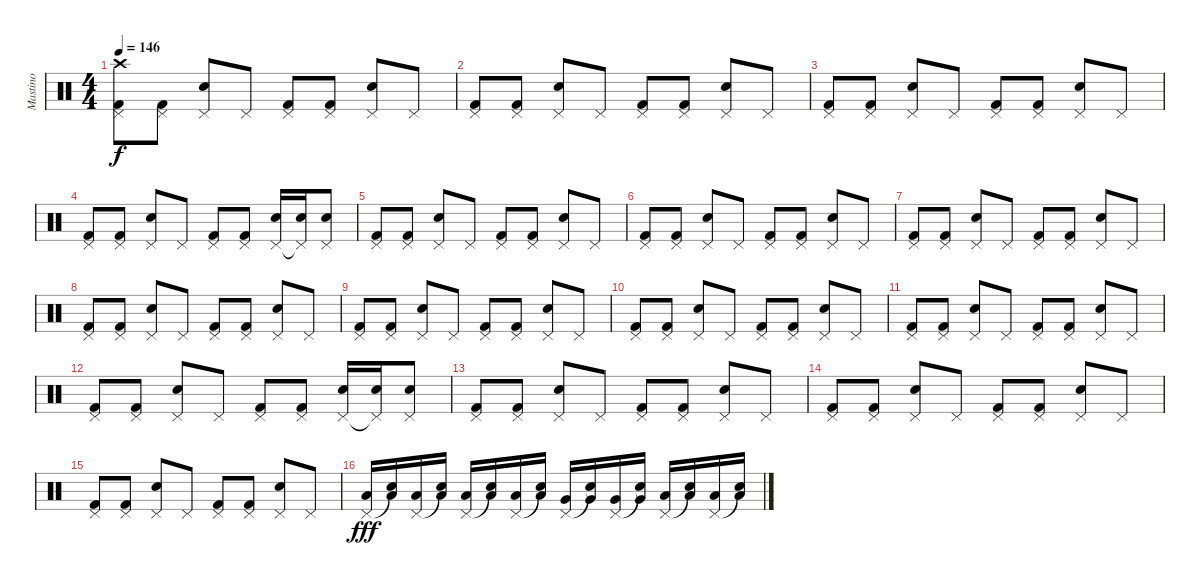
\track ("Mastino" "Mastino") {instrument percussion}
\staff {score}
\articulation defaults
\ts (4 4)
\tempo 146
\clef neutral
\ks c
("Crash high (hit)" "Pedal Hi-Hat (hit)" "Kick (hit) 2").8{dy f} ("Pedal Hi-Hat (hit)" "Kick (hit) 2").8 ("Pedal Hi-Hat (hit)" "Electric Snare (hit)").8 "Pedal Hi-Hat (hit)".8 ("Pedal Hi-Hat (hit)" "Kick (hit) 2").8 ("Pedal Hi-Hat (hit)" "Kick (hit) 2").8 ("Pedal Hi-Hat (hit)" "Electric Snare (hit)").8 "Pedal Hi-Hat (hit)".8 |
("Pedal Hi-Hat (hit)" "Kick (hit) 2").8 ("Pedal Hi-Hat (hit)" "Kick (hit) 2").8 ("Pedal Hi-Hat (hit)" "Electric Snare (hit)").8 "Pedal Hi-Hat (hit)".8 ("Pedal Hi-Hat (hit)" "Kick (hit) 2").8 ("Pedal Hi-Hat (hit)" "Kick (hit) 2").8 ("Pedal Hi-Hat (hit)" "Electric Snare (hit)").8 "Pedal Hi-Hat (hit)".8 |
("Pedal Hi-Hat (hit)" "Kick (hit) 2").8 ("Pedal Hi-Hat (hit)" "Kick (hit) 2").8 ("Pedal Hi-Hat (hit)" "Electric Snare (hit)").8 "Pedal Hi-Hat (hit)".8 ("Pedal Hi-Hat (hit)" "Kick (hit) 2").8 ("Pedal Hi-Hat (hit)" "Kick (hit) 2").8 ("Pedal Hi-Hat (hit)" "Electric Snare (hit)").8 "Pedal Hi-Hat (hit)".8 |
("Pedal Hi-Hat (hit)" "Kick (hit) 2").8 ("Pedal Hi-Hat (hit)" "Kick (hit) 2").8 ("Pedal Hi-Hat (hit)" "Electric Snare (hit)").8 "Pedal Hi-Hat (hit)".8 ("Pedal Hi-Hat (hit)" "Kick (hit) 2").8 ("Pedal Hi-Hat (hit)" "Kick (hit) 2").8 ("Pedal Hi-Hat (hit)" "Electric Snare (hit)").16 ("Pedal Hi-Hat (hit)"{t} "Electric Snare (hit)").16 ("Pedal Hi-Hat (hit)" "Electric Snare (hit)").8 |
("Pedal Hi-Hat (hit)" "Kick (hit) 2").8 ("Pedal Hi-Hat (hit)" "Kick (hit) 2").8 ("Pedal Hi-Hat (hit)" "Electric Snare (hit)").8 "Pedal Hi-Hat (hit)".8 ("Pedal Hi-Hat (hit)" "Kick (hit) 2").8 ("Pedal Hi-Hat (hit)" "Kick (hit) 2").8 ("Pedal Hi-Hat (hit)" "Electric Snare (hit)").8 "Pedal Hi-Hat (hit)".8 |
("Pedal Hi-Hat (hit)" "Kick (hit) 2").8 ("Pedal Hi-Hat (hit)" "Kick (hit) 2").8 ("Pedal Hi-Hat (hit)" "Electric Snare (hit)").8 "Pedal Hi-Hat (hit)".8 ("Pedal Hi-Hat (hit)" "Kick (hit) 2").8 ("Pedal Hi-Hat (hit)" "Kick (hit) 2").8 ("Pedal Hi-Hat (hit)" "Electric Snare (hit)").8 "Pedal Hi-Hat (hit)".8 |
("Pedal Hi-Hat (hit)" "Kick (hit) 2").8 ("Pedal Hi-Hat (hit)" "Kick (hit) 2").8 ("Pedal Hi-Hat (hit)" "Electric Snare (hit)").8 "Pedal Hi-Hat (hit)".8 ("Pedal Hi-Hat (hit)" "Kick (hit) 2").8 ("Pedal Hi-Hat (hit)" "Kick (hit) 2").8 ("Pedal Hi-Hat (hit)" "Electric Snare (hit)").8 "Pedal Hi-Hat (hit)".8 |
("Pedal Hi-Hat (hit)" "Kick (hit) 2").8 ("Pedal Hi-Hat (hit)" "Kick (hit) 2").8 ("Pedal Hi-Hat (hit)" "Electric Snare (hit)").8 "Pedal Hi-Hat (hit)".8 ("Pedal Hi-Hat (hit)" "Kick (hit) 2").8 ("Pedal Hi-Hat (hit)" "Kick (hit) 2").8 ("Pedal Hi-Hat (hit)" "Electric Snare (hit)").8 "Pedal Hi-Hat (hit)".8 |
("Pedal Hi-Hat (hit)" "Kick (hit) 2").8 ("Pedal Hi-Hat (hit)" "Kick (hit) 2").8 ("Pedal Hi-Hat (hit)" "Electric Snare (hit)").8 "Pedal Hi-Hat (hit)".8 ("Pedal Hi-Hat (hit)" "Kick (hit) 2").8 ("Pedal Hi-Hat (hit)" "Kick (hit) 2").8 ("Pedal Hi-Hat (hit)" "Electric Snare (hit)").8 "Pedal Hi-Hat (hit)".8 |
("Pedal Hi-Hat (hit)" "Kick (hit) 2").8 ("Pedal Hi-Hat (hit)" "Kick (hit) 2").8 ("Pedal Hi-Hat (hit)" "Electric Snare (hit)").8 "Pedal Hi-Hat (hit)".8 ("Pedal Hi-Hat (hit)" "Kick (hit) 2").8 ("Pedal Hi-Hat (hit)" "Kick (hit) 2").8 ("Pedal Hi-Hat (hit)" "Electric Snare (hit)").8 "Pedal Hi-Hat (hit)".8 |
("Pedal Hi-Hat (hit)" "Kick (hit) 2").8 ("Pedal Hi-Hat (hit)" "Kick (hit) 2").8 ("Pedal Hi-Hat (hit)" "Electric Snare (hit)").8 "Pedal Hi-Hat (hit)".8 ("Pedal Hi-Hat (hit)" "Kick (hit) 2").8 ("Pedal Hi-Hat (hit)" "Kick (hit) 2").8 ("Pedal Hi-Hat (hit)" "Electric Snare (hit)").8 "Pedal Hi-Hat (hit)".8 |
("Pedal Hi-Hat (hit)" "Kick (hit) 2").8 ("Pedal Hi-Hat (hit)" "Kick (hit) 2").8 ("Pedal Hi-Hat (hit)" "Electric Snare (hit)").8 "Pedal Hi-Hat (hit)".8 ("Pedal Hi-Hat (hit)" "Kick (hit) 2").8 ("Pedal Hi-Hat (hit)" "Kick (hit) 2").8 ("Pedal Hi-Hat (hit)" "Electric Snare (hit)").16 ("Pedal Hi-Hat (hit)"{t} "Electric Snare (hit)").16 ("Pedal Hi-Hat (hit)" "Electric Snare (hit)").8 |
("Pedal Hi-Hat (hit)" "Kick (hit) 2").8 ("Pedal Hi-Hat (hit)" "Kick (hit) 2").8 ("Pedal Hi-Hat (hit)" "Electric Snare (hit)").8 "Pedal Hi-Hat (hit)".8 ("Pedal Hi-Hat (hit)" "Kick (hit) 2").8 ("Pedal Hi-Hat (hit)" "Kick (hit) 2").8 ("Pedal Hi-Hat (hit)" "Electric Snare (hit)").8 "Pedal Hi-Hat (hit)".8 |
("Pedal Hi-Hat (hit)" "Kick (hit) 2").8 ("Pedal Hi-Hat (hit)" "Kick (hit) 2").8 ("Pedal Hi-Hat (hit)" "Electric Snare (hit)").8 "Pedal Hi-Hat (hit)".8 ("Pedal Hi-Hat (hit)" "Kick (hit) 2").8 ("Pedal Hi-Hat (hit)" "Kick (hit) 2").8 ("Pedal Hi-Hat (hit)" "Electric Snare (hit)").8 "Pedal Hi-Hat (hit)".8 |
("Pedal Hi-Hat (hit)" "Kick (hit) 2").8 ("Pedal Hi-Hat (hit)" "Kick (hit) 2").8 ("Pedal Hi-Hat (hit)" "Electric Snare (hit)").8 "Pedal Hi-Hat (hit)".8 ("Pedal Hi-Hat (hit)" "Kick (hit) 2").8 ("Pedal Hi-Hat (hit)" "Kick (hit) 2").8 ("Pedal Hi-Hat (hit)" "Electric Snare (hit)").8 "Pedal Hi-Hat (hit)".8 |
("Pedal Hi-Hat (hit)" "Low Floor Tom (hit)").16{dy fff} ("Snare (hit)"{t} "Low Floor Tom (hit)").16 ("Pedal Hi-Hat (hit)" "Low Floor Tom (hit)").16 ("Snare (hit)"{t} "Low Floor Tom (hit)").16 ("Pedal Hi-Hat (hit)" "Low Tom (hit)").16 ("Snare (hit)"{t} "Low Tom (hit)").16 ("Pedal Hi-Hat (hit)" "Low Tom (hit)").16 ("Snare (hit)"{t} "Low Tom (hit)").16 ("Pedal Hi-Hat (hit)" "Very Low Tom (hit)").16 ("Snare (hit)"{t} "Very Low Tom (hit)").16 ("Pedal Hi-Hat (hit)" "Very Low Tom (hit)").16 ("Snare (hit)"{t} "Very Low Tom (hit)").16 ("Pedal Hi-Hat (hit)" "Low Tom (hit)").16 ("Snare (hit)"{t} "Low Tom (hit)").16 ("Pedal Hi-Hat (hit)" "Low Tom (hit)").16 ("Snare (hit)"{t} "Low Tom (hit)").16
